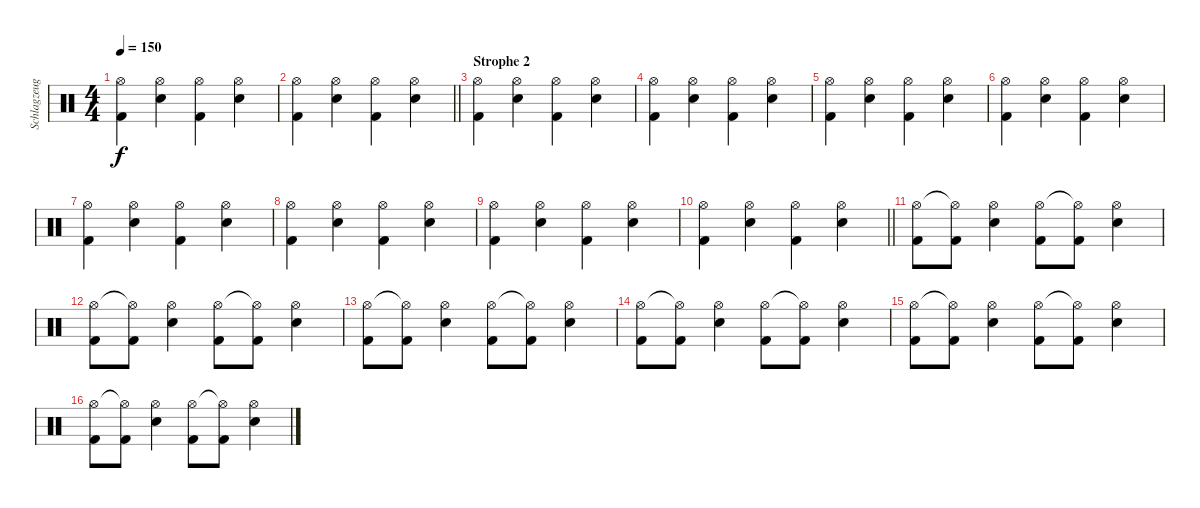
\track ("Schlagzeug" "Schlagzeug") {instrument percussion}
\staff {score}
\articulation defaults
\ts (4 4)
\tempo 150
\clef neutral
\ks c
("Hi-Hat (open)" "Kick (hit) 2").4{dy f} ("Hi-Hat (open)" "Snare (hit) 2").4 ("Hi-Hat (open)" "Kick (hit) 2").4 ("Hi-Hat (open)" "Snare (hit) 2").4 |
\barLineRight lightlight
("Hi-Hat (open)" "Kick (hit) 2").4 ("Hi-Hat (open)" "Snare (hit) 2").4 ("Hi-Hat (open)" "Kick (hit) 2").4 ("Hi-Hat (open)" "Snare (hit) 2").4 |
\section ("" "Strophe 2")
("Hi-Hat (open)" "Kick (hit) 2").4 ("Hi-Hat (open)" "Snare (hit) 2").4 ("Hi-Hat (open)" "Kick (hit) 2").4 ("Hi-Hat (open)" "Snare (hit) 2").4 |
("Hi-Hat (open)" "Kick (hit) 2").4 ("Hi-Hat (open)" "Snare (hit) 2").4 ("Hi-Hat (open)" "Kick (hit) 2").4 ("Hi-Hat (open)" "Snare (hit) 2").4 |
("Hi-Hat (open)" "Kick (hit) 2").4 ("Hi-Hat (open)" "Snare (hit) 2").4 ("Hi-Hat (open)" "Kick (hit) 2").4 ("Hi-Hat (open)" "Snare (hit) 2").4 |
("Hi-Hat (open)" "Kick (hit) 2").4 ("Hi-Hat (open)" "Snare (hit) 2").4 ("Hi-Hat (open)" "Kick (hit) 2").4 ("Hi-Hat (open)" "Snare (hit) 2").4 |
("Hi-Hat (open)" "Kick (hit) 2").4 ("Hi-Hat (open)" "Snare (hit) 2").4 ("Hi-Hat (open)" "Kick (hit) 2").4 ("Hi-Hat (open)" "Snare (hit) 2").4 |
("Hi-Hat (open)" "Kick (hit) 2").4 ("Hi-Hat (open)" "Snare (hit) 2").4 ("Hi-Hat (open)" "Kick (hit) 2").4 ("Hi-Hat (open)" "Snare (hit) 2").4 |
("Hi-Hat (open)" "Kick (hit) 2").4 ("Hi-Hat (open)" "Snare (hit) 2").4 ("Hi-Hat (open)" "Kick (hit) 2").4 ("Hi-Hat (open)" "Snare (hit) 2").4 |
\barLineRight lightlight
("Hi-Hat (open)" "Kick (hit) 2").4 ("Hi-Hat (open)" "Snare (hit) 2").4 ("Hi-Hat (open)" "Kick (hit) 2").4 ("Hi-Hat (open)" "Snare (hit) 2").4 |
("Hi-Hat (open)" "Kick (hit) 2").8 ("Hi-Hat (open)"{t} "Kick (hit) 2").8 ("Hi-Hat (open)" "Snare (hit) 2").4 ("Hi-Hat (open)" "Kick (hit) 2").8 ("Hi-Hat (open)"{t} "Kick (hit) 2").8 ("Hi-Hat (open)" "Snare (hit) 2").4 |
("Hi-Hat (open)" "Kick (hit) 2").8 ("Hi-Hat (open)"{t} "Kick (hit) 2").8 ("Hi-Hat (open)" "Snare (hit) 2").4 ("Hi-Hat (open)" "Kick (hit) 2").8 ("Hi-Hat (open)"{t} "Kick (hit) 2").8 ("Hi-Hat (open)" "Snare (hit) 2").4 |
("Hi-Hat (open)" "Kick (hit) 2").8 ("Hi-Hat (open)"{t} "Kick (hit) 2").8 ("Hi-Hat (open)" "Snare (hit) 2").4 ("Hi-Hat (open)" "Kick (hit) 2").8 ("Hi-Hat (open)"{t} "Kick (hit) 2").8 ("Hi-Hat (open)" "Snare (hit) 2").4 |
("Hi-Hat (open)" "Kick (hit) 2").8 ("Hi-Hat (open)"{t} "Kick (hit) 2").8 ("Hi-Hat (open)" "Snare (hit) 2").4 ("Hi-Hat (open)" "Kick (hit) 2").8 ("Hi-Hat (open)"{t} "Kick (hit) 2").8 ("Hi-Hat (open)" "Snare (hit) 2").4 |
("Hi-Hat (open)" "Kick (hit) 2").8 ("Hi-Hat (open)"{t} "Kick (hit) 2").8 ("Hi-Hat (open)" "Snare (hit) 2").4 ("Hi-Hat (open)" "Kick (hit) 2").8 ("Hi-Hat (open)"{t} "Kick (hit) 2").8 ("Hi-Hat (open)" "Snare (hit) 2").4 |
("Hi-Hat (open)" "Kick (hit) 2").8 ("Hi-Hat (open)"{t} "Kick (hit) 2").8 ("Hi-Hat (open)" "Snare (hit) 2").4 ("Hi-Hat (open)" "Kick (hit) 2").8 ("Hi-Hat (open)"{t} "Kick (hit) 2").8 ("Hi-Hat (open)" "Snare (hit) 2").4
